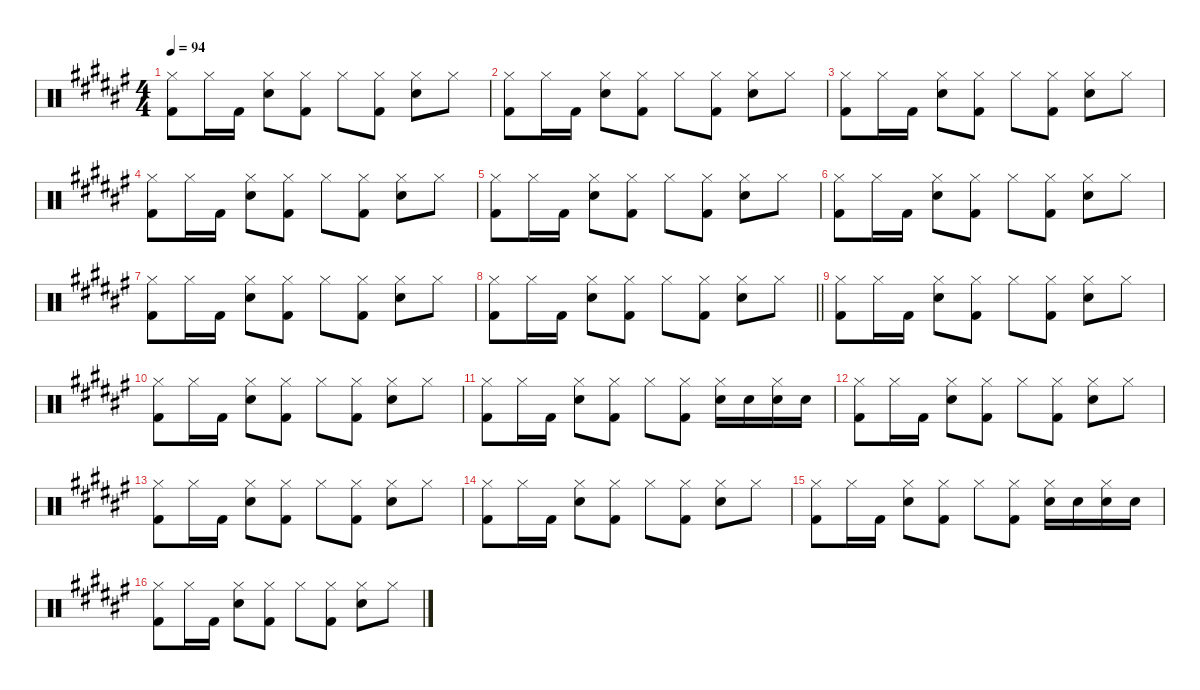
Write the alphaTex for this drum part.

\defaultSystemsLayout 4
\hideDynamics
\bracketExtendMode nobrackets
\singleTrackTrackNamePolicy hidden
\multiTrackTrackNamePolicy hidden
\otherSystemsTrackNameOrientation horizontal
\track ("Mike Joyce" "drm.") {instrument percussion}
\staff {score}
\articulation defaults
\ts (4 4)
\tempo 94
\clef neutral
\ks f#
("Hi-Hat (closed)"{acc forcenatural} "Kick (hit) 2"{acc forcenatural}).8{dy f beam Down} "Hi-Hat (closed)"{acc forcenatural}.16{beam Down} "Kick (hit) 2"{acc forcenatural}.16{beam Down} ("Hi-Hat (closed)"{acc forcenatural} "Snare (hit) 2"{acc forcenatural}).8{beam Down} ("Hi-Hat (closed)"{acc forcenatural} "Kick (hit) 2"{acc forcenatural}).8{beam Down} "Hi-Hat (closed)"{acc forcenatural}.8{beam Down} ("Hi-Hat (closed)"{acc forcenatural} "Kick (hit) 2"{acc forcenatural}).8{beam Down} ("Hi-Hat (closed)"{acc forcenatural} "Snare (hit) 2"{acc forcenatural}).8{beam Down} "Hi-Hat (closed)"{acc forcenatural}.8{beam Down} |
("Hi-Hat (closed)"{acc forcenatural} "Kick (hit) 2"{acc forcenatural}).8{beam Down} "Hi-Hat (closed)"{acc forcenatural}.16{beam Down} "Kick (hit) 2"{acc forcenatural}.16{beam Down} ("Hi-Hat (closed)"{acc forcenatural} "Snare (hit) 2"{acc forcenatural}).8{beam Down} ("Hi-Hat (closed)"{acc forcenatural} "Kick (hit) 2"{acc forcenatural}).8{beam Down} "Hi-Hat (closed)"{acc forcenatural}.8{beam Down} ("Hi-Hat (closed)"{acc forcenatural} "Kick (hit) 2"{acc forcenatural}).8{beam Down} ("Hi-Hat (closed)"{acc forcenatural} "Snare (hit) 2"{acc forcenatural}).8{beam Down} "Hi-Hat (closed)"{acc forcenatural}.8{beam Down} |
("Hi-Hat (closed)"{acc forcenatural} "Kick (hit) 2"{acc forcenatural}).8{beam Down} "Hi-Hat (closed)"{acc forcenatural}.16{beam Down} "Kick (hit) 2"{acc forcenatural}.16{beam Down} ("Hi-Hat (closed)"{acc forcenatural} "Snare (hit) 2"{acc forcenatural}).8{beam Down} ("Hi-Hat (closed)"{acc forcenatural} "Kick (hit) 2"{acc forcenatural}).8{beam Down} "Hi-Hat (closed)"{acc forcenatural}.8{beam Down} ("Hi-Hat (closed)"{acc forcenatural} "Kick (hit) 2"{acc forcenatural}).8{beam Down} ("Hi-Hat (closed)"{acc forcenatural} "Snare (hit) 2"{acc forcenatural}).8{beam Down} "Hi-Hat (closed)"{acc forcenatural}.8{beam Down} |
("Hi-Hat (closed)"{acc forcenatural} "Kick (hit) 2"{acc forcenatural}).8{beam Down} "Hi-Hat (closed)"{acc forcenatural}.16{beam Down} "Kick (hit) 2"{acc forcenatural}.16{beam Down} ("Hi-Hat (closed)"{acc forcenatural} "Snare (hit) 2"{acc forcenatural}).8{beam Down} ("Hi-Hat (closed)"{acc forcenatural} "Kick (hit) 2"{acc forcenatural}).8{beam Down} "Hi-Hat (closed)"{acc forcenatural}.8{beam Down} ("Hi-Hat (closed)"{acc forcenatural} "Kick (hit) 2"{acc forcenatural}).8{beam Down} ("Hi-Hat (closed)"{acc forcenatural} "Snare (hit) 2"{acc forcenatural}).8{beam Down} "Hi-Hat (closed)"{acc forcenatural}.8{beam Down} |
("Hi-Hat (closed)"{acc forcenatural} "Kick (hit) 2"{acc forcenatural}).8{beam Down} "Hi-Hat (closed)"{acc forcenatural}.16{beam Down} "Kick (hit) 2"{acc forcenatural}.16{beam Down} ("Hi-Hat (closed)"{acc forcenatural} "Snare (hit) 2"{acc forcenatural}).8{beam Down} ("Hi-Hat (closed)"{acc forcenatural} "Kick (hit) 2"{acc forcenatural}).8{beam Down} "Hi-Hat (closed)"{acc forcenatural}.8{beam Down} ("Hi-Hat (closed)"{acc forcenatural} "Kick (hit) 2"{acc forcenatural}).8{beam Down} ("Hi-Hat (closed)"{acc forcenatural} "Snare (hit) 2"{acc forcenatural}).8{beam Down} "Hi-Hat (closed)"{acc forcenatural}.8{beam Down} |
("Hi-Hat (closed)"{acc forcenatural} "Kick (hit) 2"{acc forcenatural}).8{beam Down} "Hi-Hat (closed)"{acc forcenatural}.16{beam Down} "Kick (hit) 2"{acc forcenatural}.16{beam Down} ("Hi-Hat (closed)"{acc forcenatural} "Snare (hit) 2"{acc forcenatural}).8{beam Down} ("Hi-Hat (closed)"{acc forcenatural} "Kick (hit) 2"{acc forcenatural}).8{beam Down} "Hi-Hat (closed)"{acc forcenatural}.8{beam Down} ("Hi-Hat (closed)"{acc forcenatural} "Kick (hit) 2"{acc forcenatural}).8{beam Down} ("Hi-Hat (closed)"{acc forcenatural} "Snare (hit) 2"{acc forcenatural}).8{beam Down} "Hi-Hat (closed)"{acc forcenatural}.8{beam Down} |
("Hi-Hat (closed)"{acc forcenatural} "Kick (hit) 2"{acc forcenatural}).8{beam Down} "Hi-Hat (closed)"{acc forcenatural}.16{beam Down} "Kick (hit) 2"{acc forcenatural}.16{beam Down} ("Hi-Hat (closed)"{acc forcenatural} "Snare (hit) 2"{acc forcenatural}).8{beam Down} ("Hi-Hat (closed)"{acc forcenatural} "Kick (hit) 2"{acc forcenatural}).8{beam Down} "Hi-Hat (closed)"{acc forcenatural}.8{beam Down} ("Hi-Hat (closed)"{acc forcenatural} "Kick (hit) 2"{acc forcenatural}).8{beam Down} ("Hi-Hat (closed)"{acc forcenatural} "Snare (hit) 2"{acc forcenatural}).8{beam Down} "Hi-Hat (closed)"{acc forcenatural}.8{beam Down} |
\barLineRight lightlight
("Hi-Hat (closed)"{acc forcenatural} "Kick (hit) 2"{acc forcenatural}).8{beam Down} "Hi-Hat (closed)"{acc forcenatural}.16{beam Down} "Kick (hit) 2"{acc forcenatural}.16{beam Down} ("Hi-Hat (closed)"{acc forcenatural} "Snare (hit) 2"{acc forcenatural}).8{beam Down} ("Hi-Hat (closed)"{acc forcenatural} "Kick (hit) 2"{acc forcenatural}).8{beam Down} "Hi-Hat (closed)"{acc forcenatural}.8{beam Down} ("Hi-Hat (closed)"{acc forcenatural} "Kick (hit) 2"{acc forcenatural}).8{beam Down} ("Hi-Hat (closed)"{acc forcenatural} "Snare (hit) 2"{acc forcenatural}).8{beam Down} "Hi-Hat (closed)"{acc forcenatural}.8{beam Down} |
("Hi-Hat (closed)"{acc forcenatural} "Kick (hit) 2"{acc forcenatural}).8{beam Down} "Hi-Hat (closed)"{acc forcenatural}.16{beam Down} "Kick (hit) 2"{acc forcenatural}.16{beam Down} ("Hi-Hat (closed)"{acc forcenatural} "Snare (hit) 2"{acc forcenatural}).8{beam Down} ("Hi-Hat (closed)"{acc forcenatural} "Kick (hit) 2"{acc forcenatural}).8{beam Down} "Hi-Hat (closed)"{acc forcenatural}.8{beam Down} ("Hi-Hat (closed)"{acc forcenatural} "Kick (hit) 2"{acc forcenatural}).8{beam Down} ("Hi-Hat (closed)"{acc forcenatural} "Snare (hit) 2"{acc forcenatural}).8{beam Down} "Hi-Hat (closed)"{acc forcenatural}.8{beam Down} |
("Hi-Hat (closed)"{acc forcenatural} "Kick (hit) 2"{acc forcenatural}).8{beam Down} "Hi-Hat (closed)"{acc forcenatural}.16{beam Down} "Kick (hit) 2"{acc forcenatural}.16{beam Down} ("Hi-Hat (closed)"{acc forcenatural} "Snare (hit) 2"{acc forcenatural}).8{beam Down} ("Hi-Hat (closed)"{acc forcenatural} "Kick (hit) 2"{acc forcenatural}).8{beam Down} "Hi-Hat (closed)"{acc forcenatural}.8{beam Down} ("Hi-Hat (closed)"{acc forcenatural} "Kick (hit) 2"{acc forcenatural}).8{beam Down} ("Hi-Hat (closed)"{acc forcenatural} "Snare (hit) 2"{acc forcenatural}).8{beam Down} "Hi-Hat (closed)"{acc forcenatural}.8{beam Down} |
("Hi-Hat (closed)"{acc forcenatural} "Kick (hit) 2"{acc forcenatural}).8{beam Down} "Hi-Hat (closed)"{acc forcenatural}.16{beam Down} "Kick (hit) 2"{acc forcenatural}.16{beam Down} ("Hi-Hat (closed)"{acc forcenatural} "Snare (hit) 2"{acc forcenatural}).8{beam Down} ("Hi-Hat (closed)"{acc forcenatural} "Kick (hit) 2"{acc forcenatural}).8{beam Down} "Hi-Hat (closed)"{acc forcenatural}.8{beam Down} ("Hi-Hat (closed)"{acc forcenatural} "Kick (hit) 2"{acc forcenatural}).8{beam Down} ("Hi-Hat (closed)"{acc forcenatural} "Snare (hit) 2"{acc forcenatural}).16{beam Down} "Snare (hit) 2"{acc forcenatural}.16{beam Down} ("Hi-Hat (closed)"{acc forcenatural} "Snare (hit) 2"{acc forcenatural}).16{beam Down} "Snare (hit) 2"{acc forcenatural}.16{beam Down} |
("Hi-Hat (closed)"{acc forcenatural} "Kick (hit) 2"{acc forcenatural}).8{beam Down} "Hi-Hat (closed)"{acc forcenatural}.16{beam Down} "Kick (hit) 2"{acc forcenatural}.16{beam Down} ("Hi-Hat (closed)"{acc forcenatural} "Snare (hit) 2"{acc forcenatural}).8{beam Down} ("Hi-Hat (closed)"{acc forcenatural} "Kick (hit) 2"{acc forcenatural}).8{beam Down} "Hi-Hat (closed)"{acc forcenatural}.8{beam Down} ("Hi-Hat (closed)"{acc forcenatural} "Kick (hit) 2"{acc forcenatural}).8{beam Down} ("Hi-Hat (closed)"{acc forcenatural} "Snare (hit) 2"{acc forcenatural}).8{beam Down} "Hi-Hat (closed)"{acc forcenatural}.8{beam Down} |
("Hi-Hat (closed)"{acc forcenatural} "Kick (hit) 2"{acc forcenatural}).8{beam Down} "Hi-Hat (closed)"{acc forcenatural}.16{beam Down} "Kick (hit) 2"{acc forcenatural}.16{beam Down} ("Hi-Hat (closed)"{acc forcenatural} "Snare (hit) 2"{acc forcenatural}).8{beam Down} ("Hi-Hat (closed)"{acc forcenatural} "Kick (hit) 2"{acc forcenatural}).8{beam Down} "Hi-Hat (closed)"{acc forcenatural}.8{beam Down} ("Hi-Hat (closed)"{acc forcenatural} "Kick (hit) 2"{acc forcenatural}).8{beam Down} ("Hi-Hat (closed)"{acc forcenatural} "Snare (hit) 2"{acc forcenatural}).8{beam Down} "Hi-Hat (closed)"{acc forcenatural}.8{beam Down} |
("Hi-Hat (closed)"{acc forcenatural} "Kick (hit) 2"{acc forcenatural}).8{beam Down} "Hi-Hat (closed)"{acc forcenatural}.16{beam Down} "Kick (hit) 2"{acc forcenatural}.16{beam Down} ("Hi-Hat (closed)"{acc forcenatural} "Snare (hit) 2"{acc forcenatural}).8{beam Down} ("Hi-Hat (closed)"{acc forcenatural} "Kick (hit) 2"{acc forcenatural}).8{beam Down} "Hi-Hat (closed)"{acc forcenatural}.8{beam Down} ("Hi-Hat (closed)"{acc forcenatural} "Kick (hit) 2"{acc forcenatural}).8{beam Down} ("Hi-Hat (closed)"{acc forcenatural} "Snare (hit) 2"{acc forcenatural}).8{beam Down} "Hi-Hat (closed)"{acc forcenatural}.8{beam Down} |
("Hi-Hat (closed)"{acc forcenatural} "Kick (hit) 2"{acc forcenatural}).8{beam Down} "Hi-Hat (closed)"{acc forcenatural}.16{beam Down} "Kick (hit) 2"{acc forcenatural}.16{beam Down} ("Hi-Hat (closed)"{acc forcenatural} "Snare (hit) 2"{acc forcenatural}).8{beam Down} ("Hi-Hat (closed)"{acc forcenatural} "Kick (hit) 2"{acc forcenatural}).8{beam Down} "Hi-Hat (closed)"{acc forcenatural}.8{beam Down} ("Hi-Hat (closed)"{acc forcenatural} "Kick (hit) 2"{acc forcenatural}).8{beam Down} ("Hi-Hat (closed)"{acc forcenatural} "Snare (hit) 2"{acc forcenatural}).16{beam Down} "Snare (hit) 2"{acc forcenatural}.16{beam Down} ("Hi-Hat (closed)"{acc forcenatural} "Snare (hit) 2"{acc forcenatural}).16{beam Down} "Snare (hit) 2"{acc forcenatural}.16{beam Down} |
("Hi-Hat (closed)"{acc forcenatural} "Kick (hit) 2"{acc forcenatural}).8{beam Down} "Hi-Hat (closed)"{acc forcenatural}.16{beam Down} "Kick (hit) 2"{acc forcenatural}.16{beam Down} ("Hi-Hat (closed)"{acc forcenatural} "Snare (hit) 2"{acc forcenatural}).8{beam Down} ("Hi-Hat (closed)"{acc forcenatural} "Kick (hit) 2"{acc forcenatural}).8{beam Down} "Hi-Hat (closed)"{acc forcenatural}.8{beam Down} ("Hi-Hat (closed)"{acc forcenatural} "Kick (hit) 2"{acc forcenatural}).8{beam Down} ("Hi-Hat (closed)"{acc forcenatural} "Snare (hit) 2"{acc forcenatural}).8{beam Down} "Hi-Hat (closed)"{acc forcenatural}.8{beam Down}
